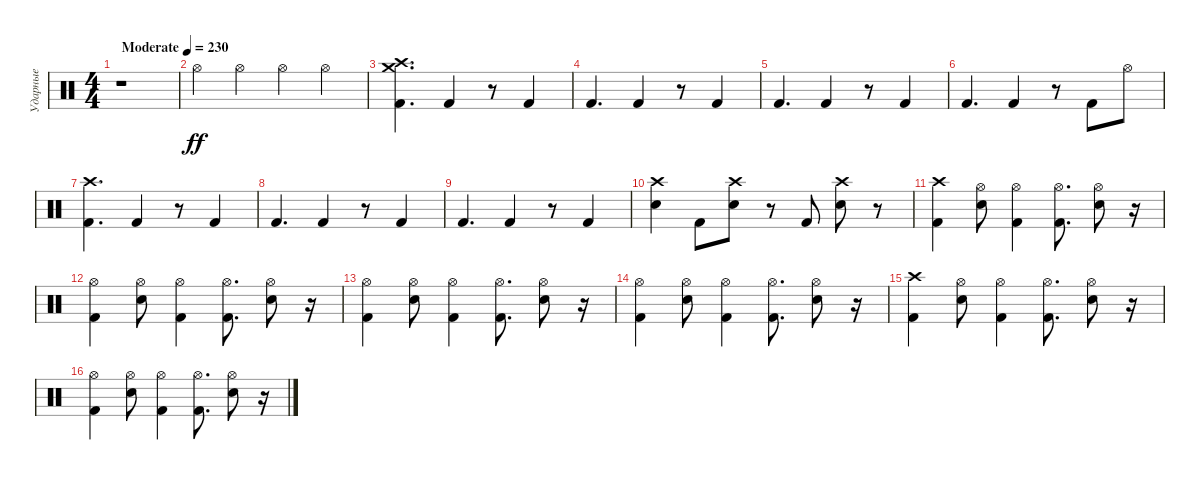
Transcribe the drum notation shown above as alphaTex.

\track ("Ударные" "Ударные") {instrument percussion}
\staff {score}
\articulation defaults
\ts (4 4)
\tempo (230 "Moderate")
\clef neutral
\ks c
r.1{dy ff} |
"Hi-Hat (open)".4 "Hi-Hat (open)".4 "Hi-Hat (open)".4 "Hi-Hat (open)".4 |
("Crash medium (hit)" "Crash high (hit)" "Kick (hit) 2").4{d} "Kick (hit) 2".4 r.8 "Kick (hit) 2".4 |
"Kick (hit) 2".4{d} "Kick (hit) 2".4 r.8 "Kick (hit) 2".4 |
"Kick (hit) 2".4{d} "Kick (hit) 2".4 r.8 "Kick (hit) 2".4 |
"Kick (hit) 2".4{d} "Kick (hit) 2".4 r.8 "Kick (hit) 2".8 "Hi-Hat (open)".8 |
("Crash high (hit)" "Kick (hit) 2").4{d} "Kick (hit) 2".4 r.8 "Kick (hit) 2".4 |
"Kick (hit) 2".4{d} "Kick (hit) 2".4 r.8 "Kick (hit) 2".4 |
"Kick (hit) 2".4{d} "Kick (hit) 2".4 r.8 "Kick (hit) 2".4 |
("Crash high (hit)" "Snare (hit) 2").4 "Kick (hit) 2".8 ("Snare (hit) 2" "Crash high (hit)").8 r.8 "Kick (hit) 2".8 ("Crash high (hit)" "Snare (hit) 2").8 r.8 |
("Kick (hit) 2" "Crash high (hit)").4 ("Snare (hit) 2" "Hi-Hat (open)").8 ("Kick (hit) 2" "Hi-Hat (open)").4 ("Kick (hit) 2" "Hi-Hat (open)").8{d} ("Snare (hit) 2" "Hi-Hat (open)").8 r.16 |
("Kick (hit) 2" "Hi-Hat (open)").4 ("Snare (hit) 2" "Hi-Hat (open)").8 ("Kick (hit) 2" "Hi-Hat (open)").4 ("Kick (hit) 2" "Hi-Hat (open)").8{d} ("Snare (hit) 2" "Hi-Hat (open)").8 r.16 |
("Kick (hit) 2" "Hi-Hat (open)").4 ("Snare (hit) 2" "Hi-Hat (open)").8 ("Kick (hit) 2" "Hi-Hat (open)").4 ("Kick (hit) 2" "Hi-Hat (open)").8{d} ("Snare (hit) 2" "Hi-Hat (open)").8 r.16 |
("Kick (hit) 2" "Hi-Hat (open)").4 ("Snare (hit) 2" "Hi-Hat (open)").8 ("Kick (hit) 2" "Hi-Hat (open)").4 ("Kick (hit) 2" "Hi-Hat (open)").8{d} ("Snare (hit) 2" "Hi-Hat (open)").8 r.16 |
("Kick (hit) 2" "Crash high (hit)").4 ("Snare (hit) 2" "Hi-Hat (open)").8 ("Kick (hit) 2" "Hi-Hat (open)").4 ("Kick (hit) 2" "Hi-Hat (open)").8{d} ("Snare (hit) 2" "Hi-Hat (open)").8 r.16 |
("Kick (hit) 2" "Hi-Hat (open)").4 ("Snare (hit) 2" "Hi-Hat (open)").8 ("Kick (hit) 2" "Hi-Hat (open)").4 ("Kick (hit) 2" "Hi-Hat (open)").8{d} ("Snare (hit) 2" "Hi-Hat (open)").8 r.16
